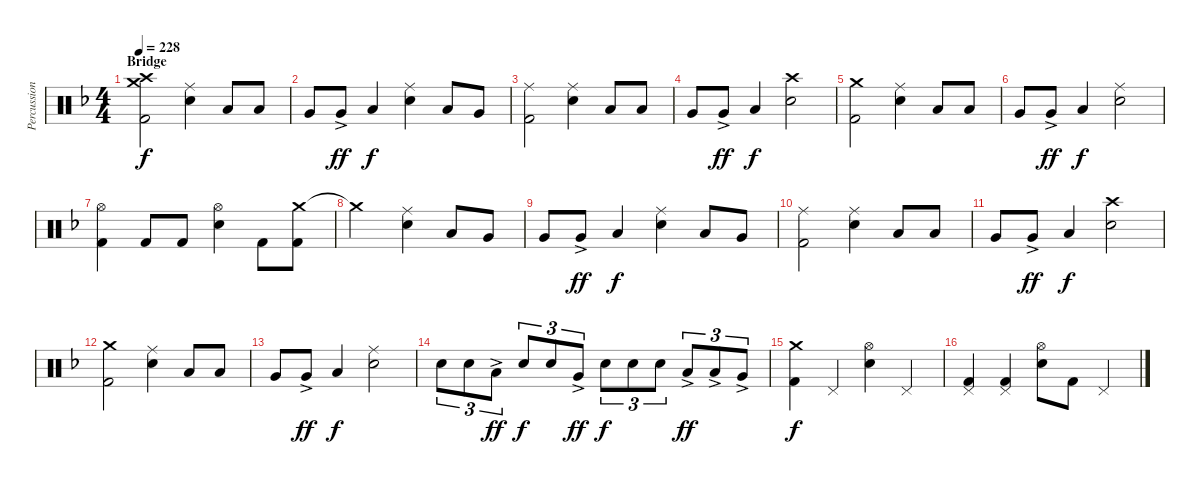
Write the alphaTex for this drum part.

\track ("Percussion" "Percussion") {instrument percussion}
\staff {score}
\articulation defaults
\ts (4 4)
\section ("" "Bridge")
\tempo 228
\clef neutral
\ks f
("Crash medium (hit)" "Crash high (hit)" "Kick (hit) 2").2{dy f} ("Ride (middle)" "Electric Snare (hit)").4 "Low Tom (hit)".8 "Low Tom (hit)".8 |
"Very Low Tom (hit)".8 "Very Low Tom (hit)"{ac}.8{dy ff} "Low Floor Tom (hit)".4{dy f} ("Ride (middle)" "Electric Snare (hit)").4 "Low Tom (hit)".8 "Very Low Tom (hit)".8 |
("Ride (middle)" "Kick (hit) 2").2 ("Ride (middle)" "Electric Snare (hit)").4 "Low Tom (hit)".8 "Low Tom (hit)".8 |
"Very Low Tom (hit)".8 "Very Low Tom (hit)"{ac}.8{dy ff} "Low Floor Tom (hit)".4{dy f} ("Crash high (hit)" "Electric Snare (hit)").2 |
("Crash medium (hit)" "Kick (hit) 2").2 ("Ride (middle)" "Electric Snare (hit)").4 "Low Tom (hit)".8 "Low Tom (hit)".8 |
"Very Low Tom (hit)".8 "Very Low Tom (hit)"{ac}.8{dy ff} "Low Floor Tom (hit)".4{dy f} ("Ride (middle)" "Electric Snare (hit)").2 |
("Hi-Hat (open)" "Kick (hit) 2").4 "Kick (hit) 2".8 "Kick (hit) 2".8 ("Hi-Hat (open)" "Electric Snare (hit)").4 "Kick (hit) 2".8 ("Crash medium (hit)" "Kick (hit) 2").8 |
"Crash medium (hit)"{t}.2 ("Ride (middle)" "Electric Snare (hit)").4 "Low Tom (hit)".8 "Very Low Tom (hit)".8 |
"Very Low Tom (hit)".8 "Very Low Tom (hit)"{ac}.8{dy ff} "Low Floor Tom (hit)".4{dy f} ("Ride (middle)" "Electric Snare (hit)").4 "Low Tom (hit)".8 "Very Low Tom (hit)".8 |
("Ride (middle)" "Kick (hit) 2").2 ("Ride (middle)" "Electric Snare (hit)").4 "Low Tom (hit)".8 "Low Tom (hit)".8 |
"Very Low Tom (hit)".8 "Very Low Tom (hit)"{ac}.8{dy ff} "Low Floor Tom (hit)".4{dy f} ("Crash high (hit)" "Electric Snare (hit)").2 |
("Crash medium (hit)" "Kick (hit) 2").2 ("Ride (middle)" "Electric Snare (hit)").4 "Low Tom (hit)".8 "Low Tom (hit)".8 |
"Very Low Tom (hit)".8 "Very Low Tom (hit)"{ac}.8{dy ff} "Low Floor Tom (hit)".4{dy f} ("Ride (middle)" "Electric Snare (hit)").2 |
"Electric Snare (hit)".8{tu (3 2)} "Electric Snare (hit)".8{tu (3 2)} "Low Tom (hit)"{ac}.8{tu (3 2) dy ff} "Electric Snare (hit)".8{tu (3 2) dy f} "Electric Snare (hit)".8{tu (3 2)} "Very Low Tom (hit)"{ac}.8{tu (3 2) dy ff} "Electric Snare (hit)".8{tu (3 2) dy f} "Electric Snare (hit)".8{tu (3 2)} "Electric Snare (hit)".8{tu (3 2)} "Low Tom (hit)"{ac}.8{tu (3 2) dy ff} "Low Tom (hit)"{ac}.8{tu (3 2)} "Very Low Tom (hit)"{ac}.8{tu (3 2)} |
("Crash medium (hit)" "Kick (hit) 2").4{dy f} "Pedal Hi-Hat (hit)".4 ("Hi-Hat (open)" "Electric Snare (hit)").4 "Pedal Hi-Hat (hit)".4 |
("Pedal Hi-Hat (hit)" "Kick (hit) 2").4 ("Pedal Hi-Hat (hit)" "Kick (hit) 2").4 ("Hi-Hat (open)" "Electric Snare (hit)").8 "Kick (hit) 2".8 "Pedal Hi-Hat (hit)".4
